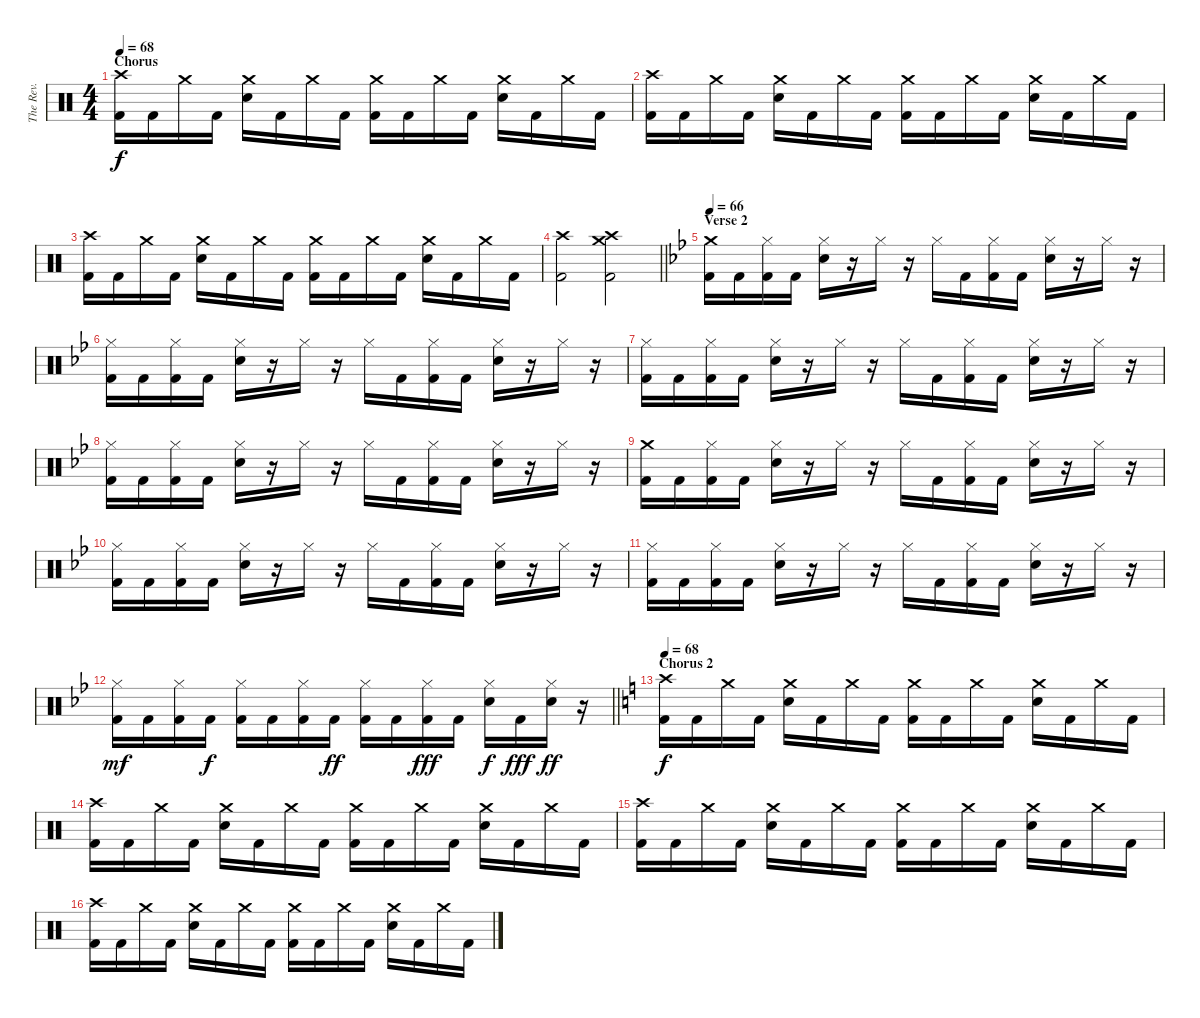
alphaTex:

\track ("The Rev." "The Rev.") {instrument percussion}
\staff {score}
\articulation defaults
\ts (4 4)
\section ("" "Chorus")
\tempo 68
\clef neutral
\ks c
("Crash high (hit)" "Kick (hit) 2").16{dy f} "Kick (hit) 2".16 "Crash medium (hit)".16 "Kick (hit) 2".16 ("Crash medium (hit)" "Electric Snare (hit)").16 "Kick (hit) 2".16 "Crash medium (hit)".16 "Kick (hit) 2".16 ("Crash medium (hit)" "Kick (hit) 2").16 "Kick (hit) 2".16 "Crash medium (hit)".16 "Kick (hit) 2".16 ("Crash medium (hit)" "Electric Snare (hit)").16 "Kick (hit) 2".16 "Crash medium (hit)".16 "Kick (hit) 2".16 |
("Crash high (hit)" "Kick (hit) 2").16 "Kick (hit) 2".16 "Crash medium (hit)".16 "Kick (hit) 2".16 ("Crash medium (hit)" "Electric Snare (hit)").16 "Kick (hit) 2".16 "Crash medium (hit)".16 "Kick (hit) 2".16 ("Crash medium (hit)" "Kick (hit) 2").16 "Kick (hit) 2".16 "Crash medium (hit)".16 "Kick (hit) 2".16 ("Crash medium (hit)" "Electric Snare (hit)").16 "Kick (hit) 2".16 "Crash medium (hit)".16 "Kick (hit) 2".16 |
("Crash high (hit)" "Kick (hit) 2").16 "Kick (hit) 2".16 "Crash medium (hit)".16 "Kick (hit) 2".16 ("Crash medium (hit)" "Electric Snare (hit)").16 "Kick (hit) 2".16 "Crash medium (hit)".16 "Kick (hit) 2".16 ("Crash medium (hit)" "Kick (hit) 2").16 "Kick (hit) 2".16 "Crash medium (hit)".16 "Kick (hit) 2".16 ("Crash medium (hit)" "Electric Snare (hit)").16 "Kick (hit) 2".16 "Crash medium (hit)".16 "Kick (hit) 2".16 |
\barLineRight lightlight
("Crash high (hit)" "Kick (hit) 2").2 ("Crash high (hit)" "Crash medium (hit)" "Kick (hit) 2").2 |
\section ("" "Verse 2")
\tempo 66
\ks bb
("Crash medium (hit)" "Kick (hit) 2").16 "Kick (hit) 2".16 ("Hi-Hat (closed)" "Kick (hit) 2").16 "Kick (hit) 2".16 ("Hi-Hat (closed)" "Electric Snare (hit)").16 r.16 "Hi-Hat (closed)".16 r.16 "Hi-Hat (closed)".16 "Kick (hit) 2".16 ("Hi-Hat (closed)" "Kick (hit) 2").16 "Kick (hit) 2".16 ("Hi-Hat (closed)" "Electric Snare (hit)").16 r.16 "Hi-Hat (closed)".16 r.16 |
("Hi-Hat (closed)" "Kick (hit) 2").16 "Kick (hit) 2".16 ("Hi-Hat (closed)" "Kick (hit) 2").16 "Kick (hit) 2".16 ("Hi-Hat (closed)" "Electric Snare (hit)").16 r.16 "Hi-Hat (closed)".16 r.16 "Hi-Hat (closed)".16 "Kick (hit) 2".16 ("Hi-Hat (closed)" "Kick (hit) 2").16 "Kick (hit) 2".16 ("Hi-Hat (closed)" "Electric Snare (hit)").16 r.16 "Hi-Hat (closed)".16 r.16 |
("Hi-Hat (closed)" "Kick (hit) 2").16 "Kick (hit) 2".16 ("Hi-Hat (closed)" "Kick (hit) 2").16 "Kick (hit) 2".16 ("Hi-Hat (closed)" "Electric Snare (hit)").16 r.16 "Hi-Hat (closed)".16 r.16 "Hi-Hat (closed)".16 "Kick (hit) 2".16 ("Hi-Hat (closed)" "Kick (hit) 2").16 "Kick (hit) 2".16 ("Hi-Hat (closed)" "Electric Snare (hit)").16 r.16 "Hi-Hat (closed)".16 r.16 |
("Hi-Hat (closed)" "Kick (hit) 2").16 "Kick (hit) 2".16 ("Hi-Hat (closed)" "Kick (hit) 2").16 "Kick (hit) 2".16 ("Hi-Hat (closed)" "Electric Snare (hit)").16 r.16 "Hi-Hat (closed)".16 r.16 "Hi-Hat (closed)".16 "Kick (hit) 2".16 ("Hi-Hat (closed)" "Kick (hit) 2").16 "Kick (hit) 2".16 ("Hi-Hat (closed)" "Electric Snare (hit)").16 r.16 "Hi-Hat (closed)".16 r.16 |
("Crash medium (hit)" "Kick (hit) 2").16 "Kick (hit) 2".16 ("Hi-Hat (closed)" "Kick (hit) 2").16 "Kick (hit) 2".16 ("Hi-Hat (closed)" "Electric Snare (hit)").16 r.16 "Hi-Hat (closed)".16 r.16 "Hi-Hat (closed)".16 "Kick (hit) 2".16 ("Hi-Hat (closed)" "Kick (hit) 2").16 "Kick (hit) 2".16 ("Hi-Hat (closed)" "Electric Snare (hit)").16 r.16 "Hi-Hat (closed)".16 r.16 |
("Hi-Hat (closed)" "Kick (hit) 2").16 "Kick (hit) 2".16 ("Hi-Hat (closed)" "Kick (hit) 2").16 "Kick (hit) 2".16 ("Hi-Hat (closed)" "Electric Snare (hit)").16 r.16 "Hi-Hat (closed)".16 r.16 "Hi-Hat (closed)".16 "Kick (hit) 2".16 ("Hi-Hat (closed)" "Kick (hit) 2").16 "Kick (hit) 2".16 ("Hi-Hat (closed)" "Electric Snare (hit)").16 r.16 "Hi-Hat (closed)".16 r.16 |
("Hi-Hat (closed)" "Kick (hit) 2").16 "Kick (hit) 2".16 ("Hi-Hat (closed)" "Kick (hit) 2").16 "Kick (hit) 2".16 ("Hi-Hat (closed)" "Electric Snare (hit)").16 r.16 "Hi-Hat (closed)".16 r.16 "Hi-Hat (closed)".16 "Kick (hit) 2".16 ("Hi-Hat (closed)" "Kick (hit) 2").16 "Kick (hit) 2".16 ("Hi-Hat (closed)" "Electric Snare (hit)").16 r.16 "Hi-Hat (closed)".16 r.16 |
\barLineRight lightlight
("Hi-Hat (closed)" "Kick (hit) 2").16{dy mf} "Kick (hit) 2".16 ("Hi-Hat (closed)" "Kick (hit) 2").16 "Kick (hit) 2".16{dy f} ("Hi-Hat (closed)" "Kick (hit) 2").16 "Kick (hit) 2".16 ("Hi-Hat (closed)" "Kick (hit) 2").16 "Kick (hit) 2".16{dy ff} ("Hi-Hat (closed)" "Kick (hit) 2").16 "Kick (hit) 2".16 ("Hi-Hat (closed)" "Kick (hit) 2").16{dy fff} "Kick (hit) 2".16 ("Hi-Hat (closed)" "Electric Snare (hit)").16{dy f} "Kick (hit) 2".16{dy fff} ("Hi-Hat (closed)" "Electric Snare (hit)").16{dy ff} r.16 |
\section ("" "Chorus 2")
\tempo 68
\ks c
("Crash high (hit)" "Kick (hit) 2").16{dy f} "Kick (hit) 2".16 "Crash medium (hit)".16 "Kick (hit) 2".16 ("Crash medium (hit)" "Electric Snare (hit)").16 "Kick (hit) 2".16 "Crash medium (hit)".16 "Kick (hit) 2".16 ("Crash medium (hit)" "Kick (hit) 2").16 "Kick (hit) 2".16 "Crash medium (hit)".16 "Kick (hit) 2".16 ("Crash medium (hit)" "Electric Snare (hit)").16 "Kick (hit) 2".16 "Crash medium (hit)".16 "Kick (hit) 2".16 |
("Crash high (hit)" "Kick (hit) 2").16 "Kick (hit) 2".16 "Crash medium (hit)".16 "Kick (hit) 2".16 ("Crash medium (hit)" "Electric Snare (hit)").16 "Kick (hit) 2".16 "Crash medium (hit)".16 "Kick (hit) 2".16 ("Crash medium (hit)" "Kick (hit) 2").16 "Kick (hit) 2".16 "Crash medium (hit)".16 "Kick (hit) 2".16 ("Crash medium (hit)" "Electric Snare (hit)").16 "Kick (hit) 2".16 "Crash medium (hit)".16 "Kick (hit) 2".16 |
("Crash high (hit)" "Kick (hit) 2").16 "Kick (hit) 2".16 "Crash medium (hit)".16 "Kick (hit) 2".16 ("Crash medium (hit)" "Electric Snare (hit)").16 "Kick (hit) 2".16 "Crash medium (hit)".16 "Kick (hit) 2".16 ("Crash medium (hit)" "Kick (hit) 2").16 "Kick (hit) 2".16 "Crash medium (hit)".16 "Kick (hit) 2".16 ("Crash medium (hit)" "Electric Snare (hit)").16 "Kick (hit) 2".16 "Crash medium (hit)".16 "Kick (hit) 2".16 |
("Crash high (hit)" "Kick (hit) 2").16 "Kick (hit) 2".16 "Crash medium (hit)".16 "Kick (hit) 2".16 ("Crash medium (hit)" "Electric Snare (hit)").16 "Kick (hit) 2".16 "Crash medium (hit)".16 "Kick (hit) 2".16 ("Crash medium (hit)" "Kick (hit) 2").16 "Kick (hit) 2".16 "Crash medium (hit)".16 "Kick (hit) 2".16 ("Crash medium (hit)" "Electric Snare (hit)").16 "Kick (hit) 2".16 "Crash medium (hit)".16 "Kick (hit) 2".16
